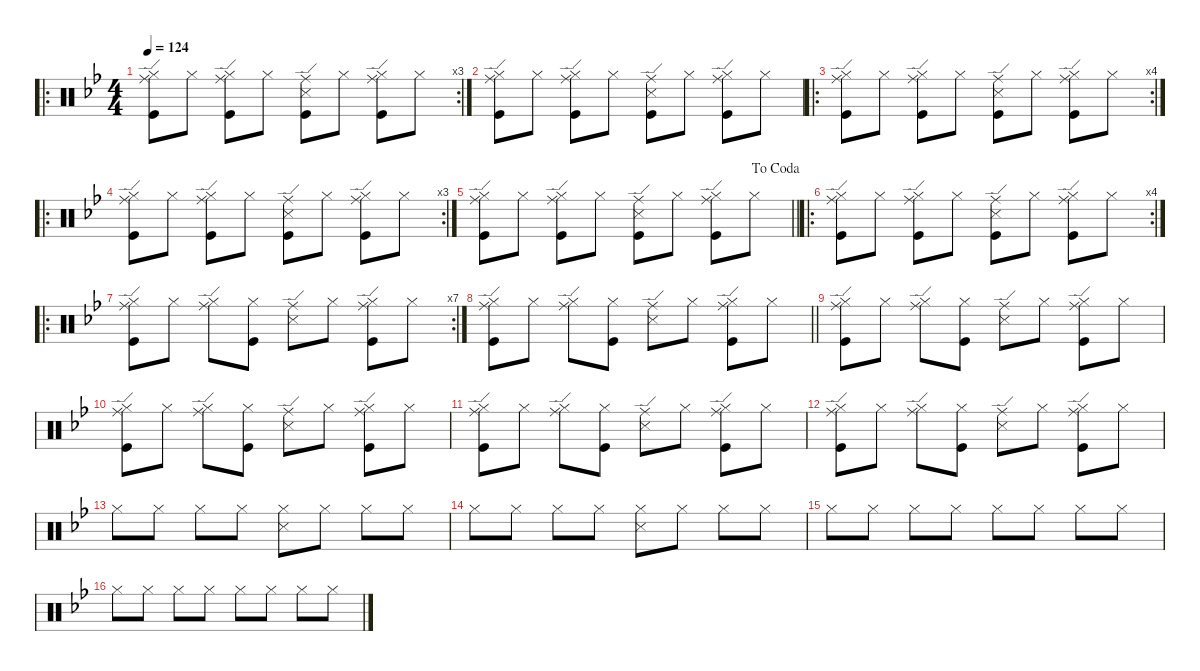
\defaultSystemsLayout 4
\hideDynamics
\bracketExtendMode nobrackets
\singleTrackTrackNamePolicy hidden
\multiTrackTrackNamePolicy hidden
\firstSystemTrackNameMode fullname
\otherSystemsTrackNameOrientation horizontal
\track ("Percussion" "drm.") {defaultSystemsLayout 4 instrument percussion}
\staff {score}
\articulation defaults
\ro
\rc 3
\ts (4 4)
\tempo 124
\clef neutral
\ks gminor
("Ride (edge)"{acc forcenatural} "Hi-Hat (closed)"{acc forcenatural} "Kick (hit)"{acc forcenatural}).8{dy f beam Down} "Hi-Hat (closed)"{acc forcenatural}.8{beam Down} ("Ride (edge)"{acc forcenatural} "Hi-Hat (closed)"{acc forcenatural} "Kick (hit)"{acc forcenatural}).8{beam Down} "Hi-Hat (closed)"{acc forcenatural}.8{beam Down} ("Ride (edge)"{acc forcenatural} "Snare (side stick) 3"{acc forcenatural} "Kick (hit)"{acc forcenatural}).8{beam Down} "Hi-Hat (closed)"{acc forcenatural}.8{beam Down} ("Ride (edge)"{acc forcenatural} "Hi-Hat (closed)"{acc forcenatural} "Kick (hit)"{acc forcenatural}).8{beam Down} "Hi-Hat (closed)"{acc forcenatural}.8{beam Down} |
("Ride (edge)"{acc forcenatural} "Hi-Hat (closed)"{acc forcenatural} "Kick (hit)"{acc forcenatural}).8{beam Down} "Hi-Hat (closed)"{acc forcenatural}.8{beam Down} ("Ride (edge)"{acc forcenatural} "Hi-Hat (closed)"{acc forcenatural} "Kick (hit)"{acc forcenatural}).8{beam Down} "Hi-Hat (closed)"{acc forcenatural}.8{beam Down} ("Ride (edge)"{acc forcenatural} "Snare (side stick) 3"{acc forcenatural} "Kick (hit)"{acc forcenatural}).8{beam Down} "Hi-Hat (closed)"{acc forcenatural}.8{beam Down} ("Ride (edge)"{acc forcenatural} "Hi-Hat (closed)"{acc forcenatural} "Kick (hit)"{acc forcenatural}).8{beam Down} "Hi-Hat (closed)"{acc forcenatural}.8{beam Down} |
\ro
\rc 4
("Ride (edge)"{acc forcenatural} "Hi-Hat (closed)"{acc forcenatural} "Kick (hit)"{acc forcenatural}).8{beam Down} "Hi-Hat (closed)"{acc forcenatural}.8{beam Down} ("Ride (edge)"{acc forcenatural} "Hi-Hat (closed)"{acc forcenatural} "Kick (hit)"{acc forcenatural}).8{beam Down} "Hi-Hat (closed)"{acc forcenatural}.8{beam Down} ("Ride (edge)"{acc forcenatural} "Snare (side stick) 3"{acc forcenatural} "Kick (hit)"{acc forcenatural}).8{beam Down} "Hi-Hat (closed)"{acc forcenatural}.8{beam Down} ("Ride (edge)"{acc forcenatural} "Hi-Hat (closed)"{acc forcenatural} "Kick (hit)"{acc forcenatural}).8{beam Down} "Hi-Hat (closed)"{acc forcenatural}.8{beam Down} |
\ro
\rc 3
("Ride (edge)"{acc forcenatural} "Hi-Hat (closed)"{acc forcenatural} "Kick (hit)"{acc forcenatural}).8{beam Down} "Hi-Hat (closed)"{acc forcenatural}.8{beam Down} ("Ride (edge)"{acc forcenatural} "Hi-Hat (closed)"{acc forcenatural} "Kick (hit)"{acc forcenatural}).8{beam Down} "Hi-Hat (closed)"{acc forcenatural}.8{beam Down} ("Ride (edge)"{acc forcenatural} "Snare (side stick) 3"{acc forcenatural} "Kick (hit)"{acc forcenatural}).8{beam Down} "Hi-Hat (closed)"{acc forcenatural}.8{beam Down} ("Ride (edge)"{acc forcenatural} "Hi-Hat (closed)"{acc forcenatural} "Kick (hit)"{acc forcenatural}).8{beam Down} "Hi-Hat (closed)"{acc forcenatural}.8{beam Down} |
\jump dacoda
\barLineRight lightlight
("Ride (edge)"{acc forcenatural} "Hi-Hat (closed)"{acc forcenatural} "Kick (hit)"{acc forcenatural}).8{beam Down} "Hi-Hat (closed)"{acc forcenatural}.8{beam Down} ("Ride (edge)"{acc forcenatural} "Hi-Hat (closed)"{acc forcenatural} "Kick (hit)"{acc forcenatural}).8{beam Down} "Hi-Hat (closed)"{acc forcenatural}.8{beam Down} ("Ride (edge)"{acc forcenatural} "Snare (side stick) 3"{acc forcenatural} "Kick (hit)"{acc forcenatural}).8{beam Down} "Hi-Hat (closed)"{acc forcenatural}.8{beam Down} ("Ride (edge)"{acc forcenatural} "Hi-Hat (closed)"{acc forcenatural} "Kick (hit)"{acc forcenatural}).8{beam Down} "Hi-Hat (closed)"{acc forcenatural}.8{beam Down} |
\ro
\rc 4
("Ride (edge)"{acc forcenatural} "Hi-Hat (closed)"{acc forcenatural} "Kick (hit)"{acc forcenatural}).8{beam Down} "Hi-Hat (closed)"{acc forcenatural}.8{beam Down} ("Ride (edge)"{acc forcenatural} "Hi-Hat (closed)"{acc forcenatural} "Kick (hit)"{acc forcenatural}).8{beam Down} "Hi-Hat (closed)"{acc forcenatural}.8{beam Down} ("Ride (edge)"{acc forcenatural} "Snare (side stick) 3"{acc forcenatural} "Kick (hit)"{acc forcenatural}).8{beam Down} "Hi-Hat (closed)"{acc forcenatural}.8{beam Down} ("Ride (edge)"{acc forcenatural} "Hi-Hat (closed)"{acc forcenatural} "Kick (hit)"{acc forcenatural}).8{beam Down} "Hi-Hat (closed)"{acc forcenatural}.8{beam Down} |
\ro
\rc 7
("Ride (edge)"{acc forcenatural} "Hi-Hat (closed)"{acc forcenatural} "Kick (hit)"{acc forcenatural}).8{beam Down} "Hi-Hat (closed)"{acc forcenatural}.8{beam Down} ("Ride (edge)"{acc forcenatural} "Hi-Hat (closed)"{acc forcenatural}).8{beam Down} ("Hi-Hat (closed)"{acc forcenatural} "Kick (hit)"{acc forcenatural}).8{beam Down} ("Ride (edge)"{acc forcenatural} "Snare (side stick) 3"{acc forcenatural}).8{beam Down} "Hi-Hat (closed)"{acc forcenatural}.8{beam Down} ("Ride (edge)"{acc forcenatural} "Hi-Hat (closed)"{acc forcenatural} "Kick (hit)"{acc forcenatural}).8{beam Down} "Hi-Hat (closed)"{acc forcenatural}.8{beam Down} |
\barLineRight lightlight
("Ride (edge)"{acc forcenatural} "Hi-Hat (closed)"{acc forcenatural} "Kick (hit)"{acc forcenatural}).8{beam Down} "Hi-Hat (closed)"{acc forcenatural}.8{beam Down} ("Ride (edge)"{acc forcenatural} "Hi-Hat (closed)"{acc forcenatural}).8{beam Down} ("Hi-Hat (closed)"{acc forcenatural} "Kick (hit)"{acc forcenatural}).8{beam Down} ("Ride (edge)"{acc forcenatural} "Snare (side stick) 3"{acc forcenatural}).8{beam Down} "Hi-Hat (closed)"{acc forcenatural}.8{beam Down} ("Hi-Hat (closed)"{acc forcenatural} "Kick (hit)"{acc forcenatural} "Ride (edge)"{acc forcenatural}).8{beam Down} "Hi-Hat (closed)"{acc forcenatural}.8{beam Down} |
("Ride (edge)"{acc forcenatural} "Hi-Hat (closed)"{acc forcenatural} "Kick (hit)"{acc forcenatural}).8{beam Down} "Hi-Hat (closed)"{acc forcenatural}.8{beam Down} ("Ride (edge)"{acc forcenatural} "Hi-Hat (closed)"{acc forcenatural}).8{beam Down} ("Hi-Hat (closed)"{acc forcenatural} "Kick (hit)"{acc forcenatural}).8{beam Down} ("Ride (edge)"{acc forcenatural} "Snare (side stick) 3"{acc forcenatural}).8{beam Down} "Hi-Hat (closed)"{acc forcenatural}.8{beam Down} ("Ride (edge)"{acc forcenatural} "Hi-Hat (closed)"{acc forcenatural} "Kick (hit)"{acc forcenatural}).8{beam Down} "Hi-Hat (closed)"{acc forcenatural}.8{beam Down} |
("Ride (edge)"{acc forcenatural} "Hi-Hat (closed)"{acc forcenatural} "Kick (hit)"{acc forcenatural}).8{beam Down} "Hi-Hat (closed)"{acc forcenatural}.8{beam Down} ("Ride (edge)"{acc forcenatural} "Hi-Hat (closed)"{acc forcenatural}).8{beam Down} ("Hi-Hat (closed)"{acc forcenatural} "Kick (hit)"{acc forcenatural}).8{beam Down} ("Ride (edge)"{acc forcenatural} "Snare (side stick) 3"{acc forcenatural}).8{beam Down} "Hi-Hat (closed)"{acc forcenatural}.8{beam Down} ("Ride (edge)"{acc forcenatural} "Hi-Hat (closed)"{acc forcenatural} "Kick (hit)"{acc forcenatural}).8{beam Down} "Hi-Hat (closed)"{acc forcenatural}.8{beam Down} |
("Ride (edge)"{acc forcenatural} "Hi-Hat (closed)"{acc forcenatural} "Kick (hit)"{acc forcenatural}).8{beam Down} "Hi-Hat (closed)"{acc forcenatural}.8{beam Down} ("Ride (edge)"{acc forcenatural} "Hi-Hat (closed)"{acc forcenatural}).8{beam Down} ("Hi-Hat (closed)"{acc forcenatural} "Kick (hit)"{acc forcenatural}).8{beam Down} ("Ride (edge)"{acc forcenatural} "Snare (side stick) 3"{acc forcenatural}).8{beam Down} "Hi-Hat (closed)"{acc forcenatural}.8{beam Down} ("Ride (edge)"{acc forcenatural} "Hi-Hat (closed)"{acc forcenatural} "Kick (hit)"{acc forcenatural}).8{beam Down} "Hi-Hat (closed)"{acc forcenatural}.8{beam Down} |
("Ride (edge)"{acc forcenatural} "Hi-Hat (closed)"{acc forcenatural} "Kick (hit)"{acc forcenatural}).8{beam Down} "Hi-Hat (closed)"{acc forcenatural}.8{beam Down} ("Ride (edge)"{acc forcenatural} "Hi-Hat (closed)"{acc forcenatural}).8{beam Down} ("Hi-Hat (closed)"{acc forcenatural} "Kick (hit)"{acc forcenatural}).8{beam Down} ("Ride (edge)"{acc forcenatural} "Snare (side stick) 3"{acc forcenatural}).8{beam Down} "Hi-Hat (closed)"{acc forcenatural}.8{beam Down} ("Ride (edge)"{acc forcenatural} "Hi-Hat (closed)"{acc forcenatural} "Kick (hit)"{acc forcenatural}).8{beam Down} "Hi-Hat (closed)"{acc forcenatural}.8{beam Down} |
"Hi-Hat (closed)"{acc forcenatural}.8{beam Down} "Hi-Hat (closed)"{acc forcenatural}.8{beam Down} "Hi-Hat (closed)"{acc forcenatural}.8{beam Down} "Hi-Hat (closed)"{acc forcenatural}.8{beam Down} ("Hi-Hat (closed)"{acc forcenatural} "Snare (side stick) 3"{acc forcenatural}).8{beam Down} "Hi-Hat (closed)"{acc forcenatural}.8{beam Down} "Hi-Hat (closed)"{acc forcenatural}.8{beam Down} "Hi-Hat (closed)"{acc forcenatural}.8{beam Down} |
"Hi-Hat (closed)"{acc forcenatural}.8{beam Down} "Hi-Hat (closed)"{acc forcenatural}.8{beam Down} "Hi-Hat (closed)"{acc forcenatural}.8{beam Down} "Hi-Hat (closed)"{acc forcenatural}.8{beam Down} ("Hi-Hat (closed)"{acc forcenatural} "Snare (side stick) 3"{acc forcenatural}).8{beam Down} "Hi-Hat (closed)"{acc forcenatural}.8{beam Down} "Hi-Hat (closed)"{acc forcenatural}.8{beam Down} "Hi-Hat (closed)"{acc forcenatural}.8{beam Down} |
"Hi-Hat (closed)"{acc forcenatural}.8{beam Down} "Hi-Hat (closed)"{acc forcenatural}.8{beam Down} "Hi-Hat (closed)"{acc forcenatural}.8{beam Down} "Hi-Hat (closed)"{acc forcenatural}.8{beam Down} "Hi-Hat (closed)"{acc forcenatural}.8{beam Down} "Hi-Hat (closed)"{acc forcenatural}.8{beam Down} "Hi-Hat (closed)"{acc forcenatural}.8{beam Down} "Hi-Hat (closed)"{acc forcenatural}.8{beam Down} |
"Hi-Hat (closed)"{acc forcenatural}.8{beam Down} "Hi-Hat (closed)"{acc forcenatural}.8{beam Down} "Hi-Hat (closed)"{acc forcenatural}.8{beam Down} "Hi-Hat (closed)"{acc forcenatural}.8{beam Down} "Hi-Hat (closed)"{acc forcenatural}.8{beam Down} "Hi-Hat (closed)"{acc forcenatural}.8{beam Down} "Hi-Hat (closed)"{acc forcenatural}.8{beam Down} "Hi-Hat (closed)"{acc forcenatural}.8{beam Down}
